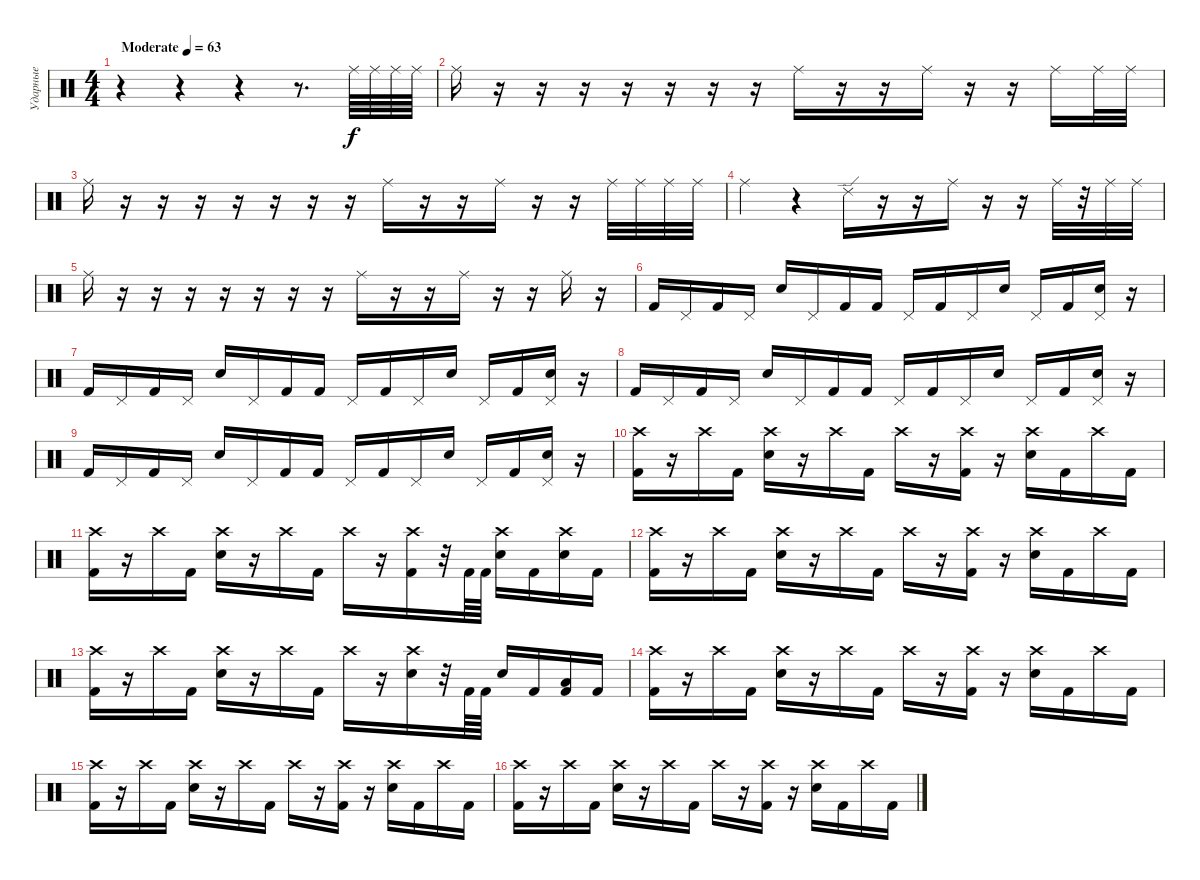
\track ("Ударные" "Ударные") {instrument percussion}
\staff {score}
\articulation defaults
\ts (4 4)
\tempo (63 "Moderate")
\clef neutral
\ks c
r.4{dy f} r.4 r.4 r.8{d} "Ride (middle)".64 "Ride (middle)".64 "Ride (middle)".64 "Ride (middle)".64 |
"Ride (middle)".16 r.16 r.16 r.16 r.16 r.16 r.16 r.16 "Ride (middle)".16 r.16 r.16 "Ride (middle)".16 r.16 r.16 "Ride (middle)".16 "Ride (middle)".32 "Ride (middle)".32 |
"Ride (middle)".16 r.16 r.16 r.16 r.16 r.16 r.16 r.16 "Ride (middle)".16 r.16 r.16 "Ride (middle)".16 r.16 r.16 "Ride (middle)".32 "Ride (middle)".32 "Ride (middle)".32 "Ride (middle)".32 |
"Ride (middle)".4 r.4 "Ride (edge) 2".16 r.16 r.16 "Ride (middle)".16 r.16 r.16 "Ride (middle)".32 r.32 "Ride (middle)".32 "Ride (middle)".32 |
"Ride (middle)".16 r.16 r.16 r.16 r.16 r.16 r.16 r.16 "Ride (middle)".16 r.16 r.16 "Ride (middle)".16 r.16 r.16 "Ride (middle)".16 r.16 |
"Kick (hit) 2".16 "Pedal Hi-Hat (hit)".16 "Kick (hit) 2".16 "Pedal Hi-Hat (hit)".16 "Electric Snare (hit)".16 "Pedal Hi-Hat (hit)".16 "Kick (hit) 2".16 "Kick (hit) 2".16 "Pedal Hi-Hat (hit)".16 "Kick (hit) 2".16 "Pedal Hi-Hat (hit)".16 "Electric Snare (hit)".16 "Pedal Hi-Hat (hit)".16 "Kick (hit) 2".16 ("Pedal Hi-Hat (hit)" "Electric Snare (hit)").16 r.16 |
"Kick (hit) 2".16 "Pedal Hi-Hat (hit)".16 "Kick (hit) 2".16 "Pedal Hi-Hat (hit)".16 "Electric Snare (hit)".16 "Pedal Hi-Hat (hit)".16 "Kick (hit) 2".16 "Kick (hit) 2".16 "Pedal Hi-Hat (hit)".16 "Kick (hit) 2".16 "Pedal Hi-Hat (hit)".16 "Electric Snare (hit)".16 "Pedal Hi-Hat (hit)".16 "Kick (hit) 2".16 ("Pedal Hi-Hat (hit)" "Electric Snare (hit)").16 r.16 |
"Kick (hit) 2".16 "Pedal Hi-Hat (hit)".16 "Kick (hit) 2".16 "Pedal Hi-Hat (hit)".16 "Electric Snare (hit)".16 "Pedal Hi-Hat (hit)".16 "Kick (hit) 2".16 "Kick (hit) 2".16 "Pedal Hi-Hat (hit)".16 "Kick (hit) 2".16 "Pedal Hi-Hat (hit)".16 "Electric Snare (hit)".16 "Pedal Hi-Hat (hit)".16 "Kick (hit) 2".16 ("Pedal Hi-Hat (hit)" "Electric Snare (hit)").16 r.16 |
"Kick (hit) 2".16 "Pedal Hi-Hat (hit)".16 "Kick (hit) 2".16 "Pedal Hi-Hat (hit)".16 "Electric Snare (hit)".16 "Pedal Hi-Hat (hit)".16 "Kick (hit) 2".16 "Kick (hit) 2".16 "Pedal Hi-Hat (hit)".16 "Kick (hit) 2".16 "Pedal Hi-Hat (hit)".16 "Electric Snare (hit)".16 "Pedal Hi-Hat (hit)".16 "Kick (hit) 2".16 ("Pedal Hi-Hat (hit)" "Electric Snare (hit)").16 r.16 |
("Crash high (hit)" "Kick (hit) 2").16 r.16 "Crash high (hit)".16 "Kick (hit) 2".16 ("Crash high (hit)" "Electric Snare (hit)").16 r.16 "Crash high (hit)".16 "Kick (hit) 2".16 "Crash high (hit)".16 r.16 ("Crash high (hit)" "Kick (hit) 2").16 r.16 ("Crash high (hit)" "Electric Snare (hit)").16 "Kick (hit) 2".16 "Crash high (hit)".16 "Kick (hit) 2".16 |
("Crash high (hit)" "Kick (hit) 2").16 r.16 "Crash high (hit)".16 "Kick (hit) 2".16 ("Crash high (hit)" "Electric Snare (hit)").16 r.16 "Crash high (hit)".16 "Kick (hit) 2".16 "Crash high (hit)".16 r.16 ("Crash high (hit)" "Kick (hit) 2").16 r.32 "Kick (hit) 2".64 "Kick (hit) 2".64 ("Crash high (hit)" "Electric Snare (hit)").16 "Kick (hit) 2".16 ("Crash high (hit)" "Electric Snare (hit)").16 "Kick (hit) 2".16 |
("Crash high (hit)" "Kick (hit) 2").16 r.16 "Crash high (hit)".16 "Kick (hit) 2".16 ("Crash high (hit)" "Electric Snare (hit)").16 r.16 "Crash high (hit)".16 "Kick (hit) 2".16 "Crash high (hit)".16 r.16 ("Crash high (hit)" "Kick (hit) 2").16 r.16 ("Crash high (hit)" "Electric Snare (hit)").16 "Kick (hit) 2".16 "Crash high (hit)".16 "Kick (hit) 2".16 |
("Crash high (hit)" "Kick (hit) 2").16 r.16 "Crash high (hit)".16 "Kick (hit) 2".16 ("Crash high (hit)" "Electric Snare (hit)").16 r.16 "Crash high (hit)".16 "Kick (hit) 2".16 "Crash high (hit)".16 r.16 ("Crash high (hit)" "Electric Snare (hit)").16 r.32 "Kick (hit) 2".64 "Kick (hit) 2".64 "Electric Snare (hit)".16 "Kick (hit) 2".16 ("Low Floor Tom (hit)" "Kick (hit) 2").16 "Kick (hit) 2".16 |
("Crash high (hit)" "Kick (hit) 2").16 r.16 "Crash high (hit)".16 "Kick (hit) 2".16 ("Crash high (hit)" "Electric Snare (hit)").16 r.16 "Crash high (hit)".16 "Kick (hit) 2".16 "Crash high (hit)".16 r.16 ("Crash high (hit)" "Kick (hit) 2").16 r.16 ("Crash high (hit)" "Electric Snare (hit)").16 "Kick (hit) 2".16 "Crash high (hit)".16 "Kick (hit) 2".16 |
("Crash high (hit)" "Kick (hit) 2").16 r.16 "Crash high (hit)".16 "Kick (hit) 2".16 ("Crash high (hit)" "Electric Snare (hit)").16 r.16 "Crash high (hit)".16 "Kick (hit) 2".16 "Crash high (hit)".16 r.16 ("Crash high (hit)" "Kick (hit) 2").16 r.16 ("Crash high (hit)" "Electric Snare (hit)").16 "Kick (hit) 2".16 "Crash high (hit)".16 "Kick (hit) 2".16 |
("Crash high (hit)" "Kick (hit) 2").16 r.16 "Crash high (hit)".16 "Kick (hit) 2".16 ("Crash high (hit)" "Electric Snare (hit)").16 r.16 "Crash high (hit)".16 "Kick (hit) 2".16 "Crash high (hit)".16 r.16 ("Crash high (hit)" "Kick (hit) 2").16 r.16 ("Crash high (hit)" "Electric Snare (hit)").16 "Kick (hit) 2".16 "Crash high (hit)".16 "Kick (hit) 2".16
